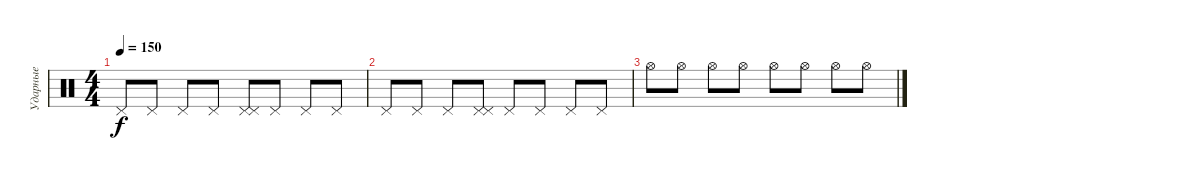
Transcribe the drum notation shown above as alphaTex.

\track ("Ударные" "Ударные") {instrument percussion}
\staff {score}
\articulation defaults
\ts (4 4)
\tempo 150
\clef neutral
\ks c "Pedal Hi-Hat (hit)".8{dy f} "Pedal Hi-Hat (hit)".8 "Pedal Hi-Hat (hit)".8 "Pedal Hi-Hat (hit)".8
("Pedal Hi-Hat (hit)" "Pedal Hi-Hat (hit)").8 "Pedal Hi-Hat (hit)".8 "Pedal Hi-Hat (hit)".8 "Pedal Hi-Hat (hit)".8 |
"Pedal Hi-Hat (hit)".8 "Pedal Hi-Hat (hit)".8 "Pedal Hi-Hat (hit)".8 ("Pedal Hi-Hat (hit)" "Pedal Hi-Hat (hit)").8 "Pedal Hi-Hat (hit)".8 "Pedal Hi-Hat (hit)".8 "Pedal Hi-Hat (hit)".8 "Pedal Hi-Hat (hit)".8 |
"Hi-Hat (open)".8 "Hi-Hat (open)".8 "Hi-Hat (open)".8 "Hi-Hat (open)".8 "Hi-Hat (open)".8 "Hi-Hat (open)".8 "Hi-Hat (open)".8 "Hi-Hat (open)".8
